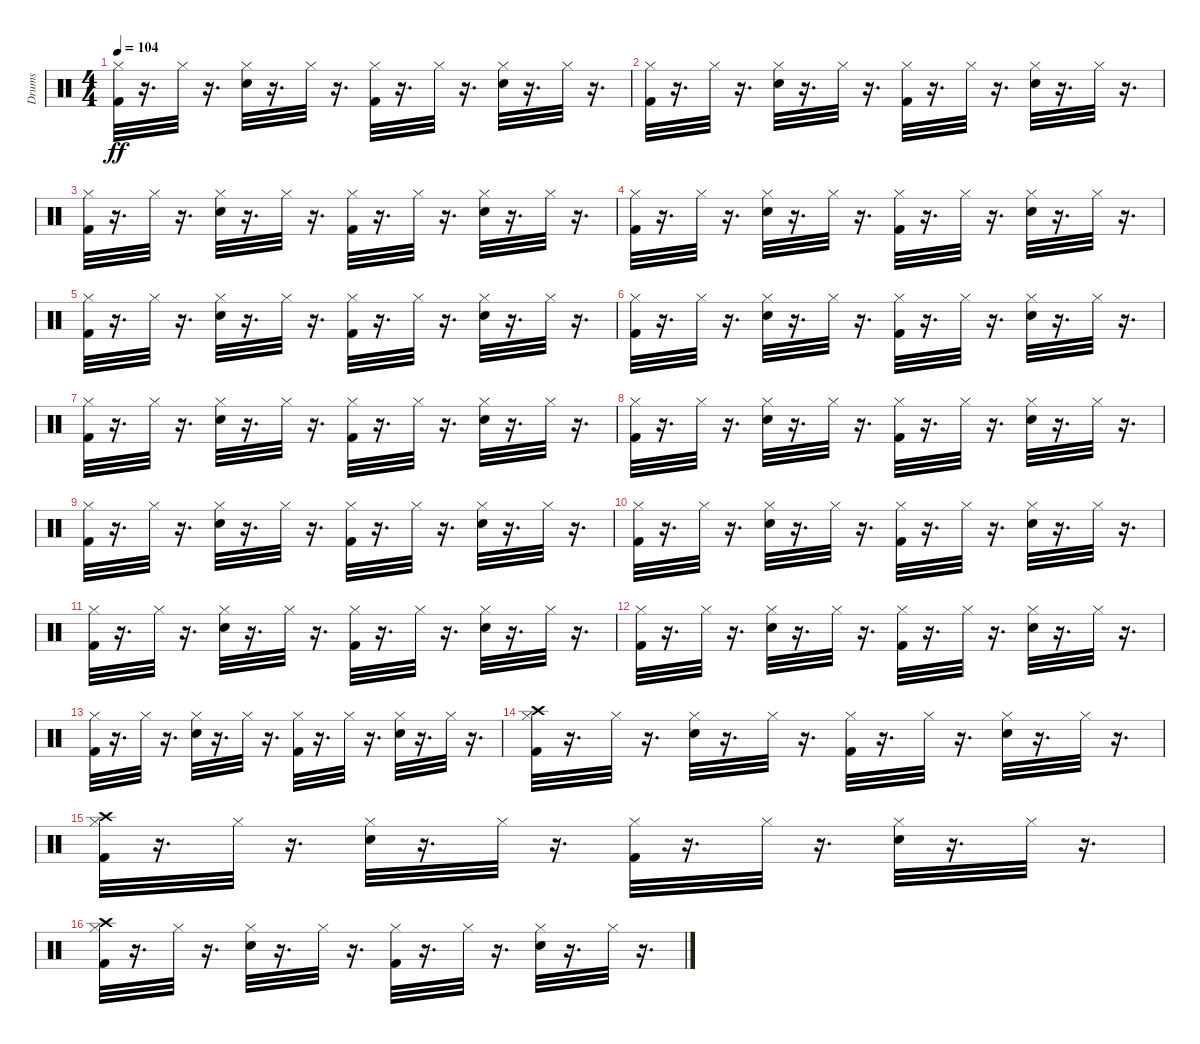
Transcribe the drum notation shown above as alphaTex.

\track ("Drums" "Drums") {instrument percussion}
\staff {score}
\articulation defaults
\ts (4 4)
\tempo 104
\clef neutral
\ks c
("Kick (hit) 2" "Hi-Hat (closed)").32{dy ff volume 11 balance 8} r.16{d} "Hi-Hat (closed)".32 r.16{d} ("Snare (hit) 2" "Hi-Hat (closed)").32 r.16{d} "Hi-Hat (closed)".32 r.16{d} ("Kick (hit) 2" "Hi-Hat (closed)").32 r.16{d} "Hi-Hat (closed)".32 r.16{d} ("Snare (hit) 2" "Hi-Hat (closed)").32 r.16{d} "Hi-Hat (closed)".32 r.16{d} |
("Kick (hit) 2" "Hi-Hat (closed)").32{volume 10 balance 8} r.16{d} "Hi-Hat (closed)".32 r.16{d} ("Snare (hit) 2" "Hi-Hat (closed)").32 r.16{d} "Hi-Hat (closed)".32 r.16{d} ("Kick (hit) 2" "Hi-Hat (closed)").32 r.16{d} "Hi-Hat (closed)".32 r.16{d} ("Snare (hit) 2" "Hi-Hat (closed)").32 r.16{d} "Hi-Hat (closed)".32 r.16{d} |
("Kick (hit) 2" "Hi-Hat (closed)").32{volume 10 balance 8} r.16{d} "Hi-Hat (closed)".32 r.16{d} ("Snare (hit) 2" "Hi-Hat (closed)").32 r.16{d} "Hi-Hat (closed)".32 r.16{d} ("Kick (hit) 2" "Hi-Hat (closed)").32 r.16{d} "Hi-Hat (closed)".32 r.16{d} ("Snare (hit) 2" "Hi-Hat (closed)").32 r.16{d} "Hi-Hat (closed)".32 r.16{d} |
("Kick (hit) 2" "Hi-Hat (closed)").32{volume 9 balance 8} r.16{d} "Hi-Hat (closed)".32 r.16{d} ("Snare (hit) 2" "Hi-Hat (closed)").32 r.16{d} "Hi-Hat (closed)".32 r.16{d} ("Kick (hit) 2" "Hi-Hat (closed)").32 r.16{d} "Hi-Hat (closed)".32 r.16{d} ("Snare (hit) 2" "Hi-Hat (closed)").32 r.16{d} "Hi-Hat (closed)".32 r.16{d} |
("Kick (hit) 2" "Hi-Hat (closed)").32{volume 9 balance 8} r.16{d} "Hi-Hat (closed)".32 r.16{d} ("Snare (hit) 2" "Hi-Hat (closed)").32 r.16{d} "Hi-Hat (closed)".32 r.16{d} ("Kick (hit) 2" "Hi-Hat (closed)").32 r.16{d} "Hi-Hat (closed)".32 r.16{d} ("Snare (hit) 2" "Hi-Hat (closed)").32 r.16{d} "Hi-Hat (closed)".32 r.16{d} |
("Kick (hit) 2" "Hi-Hat (closed)").32{volume 8 balance 8} r.16{d} "Hi-Hat (closed)".32 r.16{d} ("Snare (hit) 2" "Hi-Hat (closed)").32 r.16{d} "Hi-Hat (closed)".32 r.16{d} ("Kick (hit) 2" "Hi-Hat (closed)").32 r.16{d} "Hi-Hat (closed)".32 r.16{d} ("Snare (hit) 2" "Hi-Hat (closed)").32 r.16{d} "Hi-Hat (closed)".32 r.16{d} |
("Kick (hit) 2" "Hi-Hat (closed)").32{volume 8 balance 8} r.16{d} "Hi-Hat (closed)".32 r.16{d} ("Snare (hit) 2" "Hi-Hat (closed)").32 r.16{d} "Hi-Hat (closed)".32 r.16{d} ("Kick (hit) 2" "Hi-Hat (closed)").32 r.16{d} "Hi-Hat (closed)".32 r.16{d} ("Snare (hit) 2" "Hi-Hat (closed)").32 r.16{d} "Hi-Hat (closed)".32 r.16{d} |
("Kick (hit) 2" "Hi-Hat (closed)").32{volume 7 balance 8} r.16{d} "Hi-Hat (closed)".32 r.16{d} ("Snare (hit) 2" "Hi-Hat (closed)").32 r.16{d} "Hi-Hat (closed)".32 r.16{d} ("Kick (hit) 2" "Hi-Hat (closed)").32 r.16{d} "Hi-Hat (closed)".32 r.16{d} ("Snare (hit) 2" "Hi-Hat (closed)").32 r.16{d} "Hi-Hat (closed)".32 r.16{d} |
("Kick (hit) 2" "Hi-Hat (closed)").32{volume 7 balance 8} r.16{d} "Hi-Hat (closed)".32 r.16{d} ("Snare (hit) 2" "Hi-Hat (closed)").32 r.16{d} "Hi-Hat (closed)".32 r.16{d} ("Kick (hit) 2" "Hi-Hat (closed)").32 r.16{d} "Hi-Hat (closed)".32 r.16{d} ("Snare (hit) 2" "Hi-Hat (closed)").32 r.16{d} "Hi-Hat (closed)".32 r.16{d} |
("Kick (hit) 2" "Hi-Hat (closed)").32{volume 6 balance 8} r.16{d} "Hi-Hat (closed)".32 r.16{d} ("Snare (hit) 2" "Hi-Hat (closed)").32 r.16{d} "Hi-Hat (closed)".32 r.16{d} ("Kick (hit) 2" "Hi-Hat (closed)").32 r.16{d} "Hi-Hat (closed)".32 r.16{d} ("Snare (hit) 2" "Hi-Hat (closed)").32 r.16{d} "Hi-Hat (closed)".32 r.16{d} |
("Kick (hit) 2" "Hi-Hat (closed)").32{volume 6 balance 8} r.16{d} "Hi-Hat (closed)".32 r.16{d} ("Snare (hit) 2" "Hi-Hat (closed)").32 r.16{d} "Hi-Hat (closed)".32 r.16{d} ("Kick (hit) 2" "Hi-Hat (closed)").32 r.16{d} "Hi-Hat (closed)".32 r.16{d} ("Snare (hit) 2" "Hi-Hat (closed)").32 r.16{d} "Hi-Hat (closed)".32 r.16{d} |
("Kick (hit) 2" "Hi-Hat (closed)").32{volume 5 balance 8} r.16{d} "Hi-Hat (closed)".32 r.16{d} ("Snare (hit) 2" "Hi-Hat (closed)").32 r.16{d} "Hi-Hat (closed)".32 r.16{d} ("Kick (hit) 2" "Hi-Hat (closed)").32 r.16{d} "Hi-Hat (closed)".32 r.16{d} ("Snare (hit) 2" "Hi-Hat (closed)").32 r.16{d} "Hi-Hat (closed)".32 r.16{d} |
("Kick (hit) 2" "Hi-Hat (closed)").32{volume 5 balance 8} r.16{d} "Hi-Hat (closed)".32 r.16{d} ("Snare (hit) 2" "Hi-Hat (closed)").32 r.16{d} "Hi-Hat (closed)".32 r.16{d} ("Kick (hit) 2" "Hi-Hat (closed)").32 r.16{d} "Hi-Hat (closed)".32 r.16{d} ("Snare (hit) 2" "Hi-Hat (closed)").32 r.16{d} "Hi-Hat (closed)".32 r.16{d} |
("Kick (hit) 2" "Hi-Hat (closed)" "Crash high (hit)").32{volume 4 balance 8} r.16{d} "Hi-Hat (closed)".32 r.16{d} ("Snare (hit) 2" "Hi-Hat (closed)").32 r.16{d} "Hi-Hat (closed)".32 r.16{d} ("Kick (hit) 2" "Hi-Hat (closed)").32 r.16{d} "Hi-Hat (closed)".32 r.16{d} ("Snare (hit) 2" "Hi-Hat (closed)").32 r.16{d} "Hi-Hat (closed)".32 r.16{d} |
("Kick (hit) 2" "Hi-Hat (closed)" "Crash high (hit)").32{volume 4 balance 8} r.16{d} "Hi-Hat (closed)".32 r.16{d} ("Snare (hit) 2" "Hi-Hat (closed)").32 r.16{d} "Hi-Hat (closed)".32 r.16{d} ("Kick (hit) 2" "Hi-Hat (closed)").32 r.16{d} "Hi-Hat (closed)".32 r.16{d} ("Snare (hit) 2" "Hi-Hat (closed)").32 r.16{d} "Hi-Hat (closed)".32 r.16{d} |
("Kick (hit) 2" "Hi-Hat (closed)" "Crash high (hit)").32{volume 3 balance 8} r.16{d} "Hi-Hat (closed)".32 r.16{d} ("Snare (hit) 2" "Hi-Hat (closed)").32 r.16{d} "Hi-Hat (closed)".32 r.16{d} ("Kick (hit) 2" "Hi-Hat (closed)").32 r.16{d} "Hi-Hat (closed)".32 r.16{d} ("Snare (hit) 2" "Hi-Hat (closed)").32 r.16{d} "Hi-Hat (closed)".32 r.16{d}
